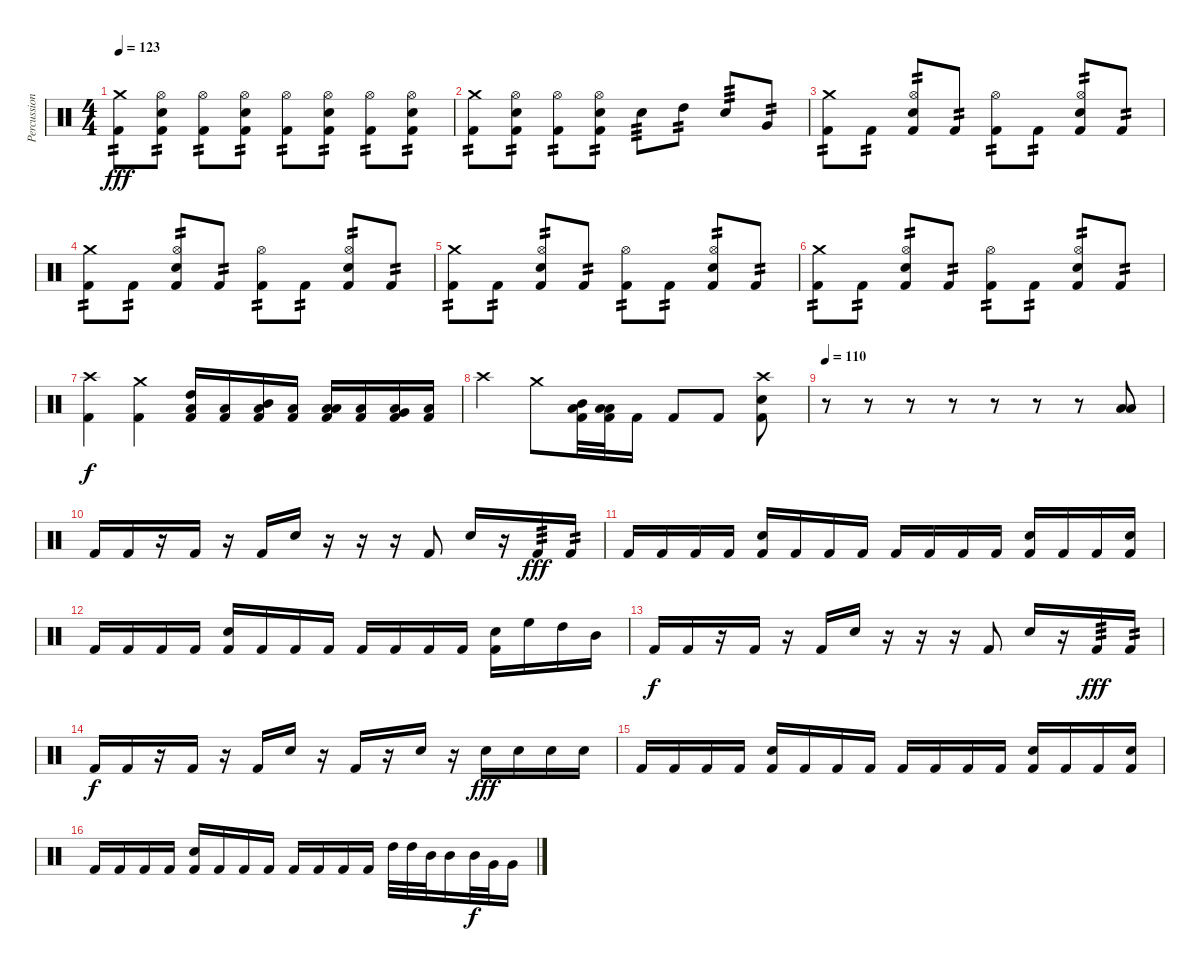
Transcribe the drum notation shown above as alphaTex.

\track ("Percussion" "Percussion") {solo instrument percussion}
\staff {score}
\articulation defaults
\ts (4 4)
\tempo 123
\clef neutral
\ks c
("Crash medium (hit)" "Kick (hit) 2").8{tp 2 dy fff} ("Hi-Hat (open)" "Electric Snare (hit)" "Kick (hit) 2").8{tp 2} ("Hi-Hat (open)" "Kick (hit) 2").8{tp 2} ("Hi-Hat (open)" "Electric Snare (hit)" "Kick (hit) 2").8{tp 2} ("Hi-Hat (open)" "Kick (hit) 2").8{tp 2} ("Hi-Hat (open)" "Electric Snare (hit)" "Kick (hit) 2").8{tp 2} ("Hi-Hat (open)" "Kick (hit) 2").8{tp 2} ("Hi-Hat (open)" "Electric Snare (hit)" "Kick (hit) 2").8{tp 2} |
("Crash medium (hit)" "Kick (hit) 2").8{tp 2} ("Hi-Hat (open)" "Electric Snare (hit)" "Kick (hit) 2").8{tp 2} ("Hi-Hat (open)" "Kick (hit) 2").8{tp 2} ("Hi-Hat (open)" "Electric Snare (hit)" "Kick (hit) 2").8{tp 2} "Electric Snare (hit)".8{tp 3} "High Tom (hit)".8{tp 2} "Electric Snare (hit)".8{tp 3} "Very Low Tom (hit)".8{tp 2} |
("Crash medium (hit)" "Kick (hit) 2").8{tp 2} "Kick (hit) 2".8{tp 2} ("Hi-Hat (open)" "Electric Snare (hit)" "Kick (hit) 2").8{tp 2} "Kick (hit) 2".8{tp 2} ("Hi-Hat (open)" "Kick (hit) 2").8{tp 2} "Kick (hit) 2".8{tp 2} ("Hi-Hat (open)" "Electric Snare (hit)" "Kick (hit) 2").8{tp 2} "Kick (hit) 2".8{tp 2} |
("Crash medium (hit)" "Kick (hit) 2").8{tp 2} "Kick (hit) 2".8{tp 2} ("Hi-Hat (open)" "Electric Snare (hit)" "Kick (hit) 2").8{tp 2} "Kick (hit) 2".8{tp 2} ("Hi-Hat (open)" "Kick (hit) 2").8{tp 2} "Kick (hit) 2".8{tp 2} ("Hi-Hat (open)" "Electric Snare (hit)" "Kick (hit) 2").8{tp 2} "Kick (hit) 2".8{tp 2} |
("Crash medium (hit)" "Kick (hit) 2").8{tp 2} "Kick (hit) 2".8{tp 2} ("Hi-Hat (open)" "Electric Snare (hit)" "Kick (hit) 2").8{tp 2} "Kick (hit) 2".8{tp 2} ("Hi-Hat (open)" "Kick (hit) 2").8{tp 2} "Kick (hit) 2".8{tp 2} ("Hi-Hat (open)" "Electric Snare (hit)" "Kick (hit) 2").8{tp 2} "Kick (hit) 2".8{tp 2} |
("Crash medium (hit)" "Kick (hit) 2").8{tp 2} "Kick (hit) 2".8{tp 2} ("Hi-Hat (open)" "Electric Snare (hit)" "Kick (hit) 2").8{tp 2} "Kick (hit) 2".8{tp 2} ("Hi-Hat (open)" "Kick (hit) 2").8{tp 2} "Kick (hit) 2".8{tp 2} ("Hi-Hat (open)" "Electric Snare (hit)" "Kick (hit) 2").8{tp 2} "Kick (hit) 2".8{tp 2} |
("Crash high (hit)" "Kick (hit) 2").4{dy f} ("Crash medium (hit)" "Kick (hit) 2").4 ("Kick (hit) 2" "High Tom (hit)" "Low Floor Tom (hit)").16 ("Kick (hit) 2" "Low Floor Tom (hit)").16 ("Kick (hit) 2" "Mid Tom (hit)" "Low Floor Tom (hit)").16 ("Kick (hit) 2" "Low Floor Tom (hit)").16 ("Kick (hit) 2" "Low Tom (hit)" "Low Floor Tom (hit)").16 ("Kick (hit) 2" "Low Floor Tom (hit)").16 ("Kick (hit) 2" "Very Low Tom (hit)" "Low Floor Tom (hit)").16 ("Kick (hit) 2" "Low Floor Tom (hit)").16 |
"Crash high (hit)".4 "Crash medium (hit)".8 ("Kick (hit) 2" "Mid Tom (hit)" "Low Floor Tom (hit)").32 ("Kick (hit) 2" "Low Tom (hit)" "Low Floor Tom (hit)").32 "Kick (hit) 2".16 "Kick (hit) 2".8 "Kick (hit) 2".8 ("Kick (hit) 2" "Crash high (hit)" "Electric Snare (hit)").8 |
\tempo 110
r.8 r.8 r.8 r.8 r.8 r.8 r.8 ("Low Floor Tom (hit)" "Low Tom (hit)").8 |
"Kick (hit) 2".16 "Kick (hit) 2".16 r.16 "Kick (hit) 2".16 r.16 "Kick (hit) 2".16 "Electric Snare (hit)".16 r.16 r.16 r.16 "Kick (hit) 2".8 "Electric Snare (hit)".16 r.16 "Kick (hit) 2".16{tp 3 dy fff} "Kick (hit) 2".16{tp 2} |
"Kick (hit) 2".16 "Kick (hit) 2".16 "Kick (hit) 2".16 "Kick (hit) 2".16 ("Kick (hit) 2" "Electric Snare (hit)").16 "Kick (hit) 2".16 "Kick (hit) 2".16 "Kick (hit) 2".16 "Kick (hit) 2".16 "Kick (hit) 2".16 "Kick (hit) 2".16 "Kick (hit) 2".16 ("Kick (hit) 2" "Electric Snare (hit)").16 "Kick (hit) 2".16 "Kick (hit) 2".16 ("Kick (hit) 2" "Electric Snare (hit)").16 |
"Kick (hit) 2".16 "Kick (hit) 2".16 "Kick (hit) 2".16 "Kick (hit) 2".16 ("Kick (hit) 2" "Electric Snare (hit)").16 "Kick (hit) 2".16 "Kick (hit) 2".16 "Kick (hit) 2".16 "Kick (hit) 2".16 "Kick (hit) 2".16 "Kick (hit) 2".16 "Kick (hit) 2".16 ("Kick (hit) 2" "Electric Snare (hit)").16 "High Floor Tom (hit)".16 "High Tom (hit)".16 "Mid Tom (hit)".16 |
"Kick (hit) 2".16{dy f} "Kick (hit) 2".16 r.16 "Kick (hit) 2".16 r.16 "Kick (hit) 2".16 "Electric Snare (hit)".16 r.16 r.16 r.16 "Kick (hit) 2".8 "Electric Snare (hit)".16 r.16 "Kick (hit) 2".16{tp 3 dy fff} "Kick (hit) 2".16{tp 2} |
"Kick (hit) 2".16{dy f} "Kick (hit) 2".16 r.16 "Kick (hit) 2".16 r.16 "Kick (hit) 2".16 "Electric Snare (hit)".16 r.16 "Kick (hit) 2".16 r.16 "Electric Snare (hit)".16 r.16 "Electric Snare (hit)".16{dy fff} "Electric Snare (hit)".16 "Electric Snare (hit)".16 "Electric Snare (hit)".16 |
"Kick (hit) 2".16 "Kick (hit) 2".16 "Kick (hit) 2".16 "Kick (hit) 2".16 ("Kick (hit) 2" "Electric Snare (hit)").16 "Kick (hit) 2".16 "Kick (hit) 2".16 "Kick (hit) 2".16 "Kick (hit) 2".16 "Kick (hit) 2".16 "Kick (hit) 2".16 "Kick (hit) 2".16 ("Kick (hit) 2" "Electric Snare (hit)").16 "Kick (hit) 2".16 "Kick (hit) 2".16 ("Kick (hit) 2" "Electric Snare (hit)").16 |
"Kick (hit) 2".16 "Kick (hit) 2".16 "Kick (hit) 2".16 "Kick (hit) 2".16 ("Kick (hit) 2" "Electric Snare (hit)").16 "Kick (hit) 2".16 "Kick (hit) 2".16 "Kick (hit) 2".16 "Kick (hit) 2".16 "Kick (hit) 2".16 "Kick (hit) 2".16 "Kick (hit) 2".16 "High Tom (hit)".32 "High Tom (hit)".32 "Mid Tom (hit)".32 "Mid Tom (hit)".16 "Mid Tom (hit)".32{dy f} "Very Low Tom (hit)".32 "Very Low Tom (hit)".16
